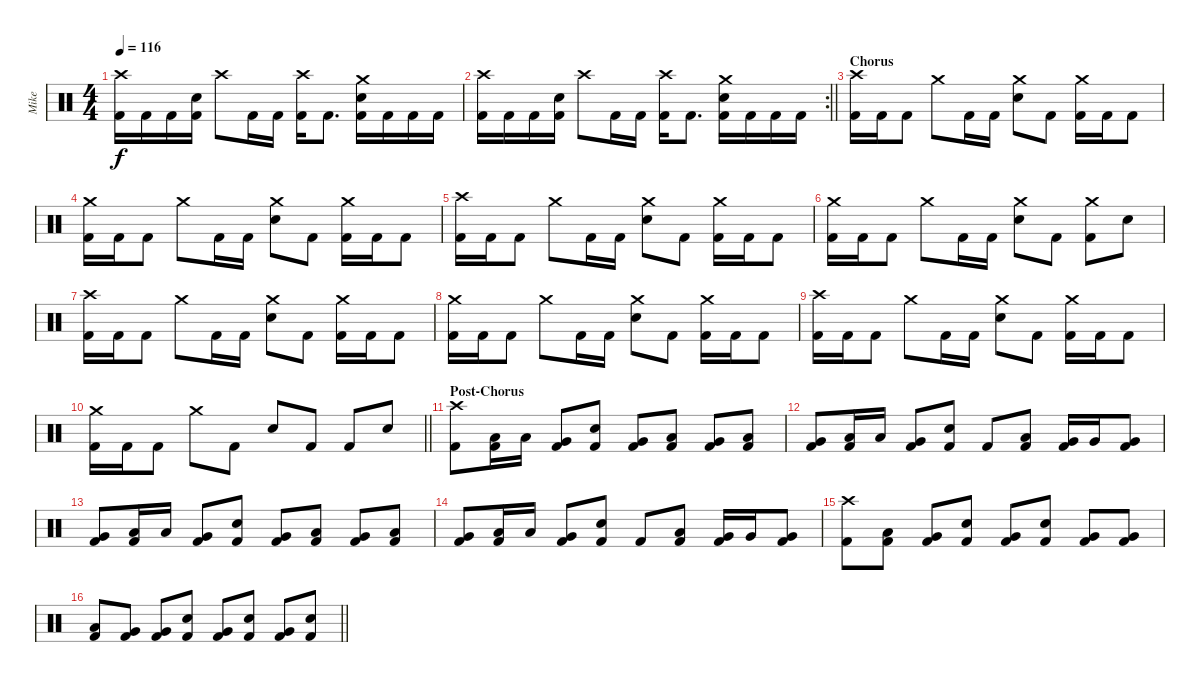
\track ("Mike" "Mike") {instrument percussion}
\staff {score}
\articulation defaults
\ts (4 4)
\tempo 116
\clef neutral
\ks c
("Crash high (hit)" "Kick (hit) 2").16{dy f} "Kick (hit) 2".16 "Kick (hit) 2".16 ("Snare (hit) 2" "Kick (hit) 2").16 "Crash high (hit)".8 "Kick (hit) 2".16 "Kick (hit) 2".16 ("Crash high (hit)" "Kick (hit) 2").16 "Kick (hit) 2".8{d} ("Crash medium (hit)" "Snare (hit) 2" "Kick (hit) 2").16 "Kick (hit) 2".16 "Kick (hit) 2".16 "Kick (hit) 2".16 |
\rc 2
\barLineRight lightlight
("Crash high (hit)" "Kick (hit) 2").16 "Kick (hit) 2".16 "Kick (hit) 2".16 ("Snare (hit) 2" "Kick (hit) 2").16 "Crash high (hit)".8 "Kick (hit) 2".16 "Kick (hit) 2".16 ("Crash high (hit)" "Kick (hit) 2").16 "Kick (hit) 2".8{d} ("Crash medium (hit)" "Snare (hit) 2" "Kick (hit) 2").16 "Kick (hit) 2".16 "Kick (hit) 2".16 "Kick (hit) 2".16 |
\section ("" "Chorus")
("Crash high (hit)" "Kick (hit) 2").16 "Kick (hit) 2".16 "Kick (hit) 2".8 "Crash medium (hit)".8 "Kick (hit) 2".16 "Kick (hit) 2".16 ("Crash medium (hit)" "Snare (hit) 2").8 "Kick (hit) 2".8 ("Crash medium (hit)" "Kick (hit) 2").16 "Kick (hit) 2".16 "Kick (hit) 2".8 |
("Crash medium (hit)" "Kick (hit) 2").16 "Kick (hit) 2".16 "Kick (hit) 2".8 "Crash medium (hit)".8 "Kick (hit) 2".16 "Kick (hit) 2".16 ("Crash medium (hit)" "Snare (hit) 2").8 "Kick (hit) 2".8 ("Crash medium (hit)" "Kick (hit) 2").16 "Kick (hit) 2".16 "Kick (hit) 2".8 |
("Crash high (hit)" "Kick (hit) 2").16 "Kick (hit) 2".16 "Kick (hit) 2".8 "Crash medium (hit)".8 "Kick (hit) 2".16 "Kick (hit) 2".16 ("Crash medium (hit)" "Snare (hit) 2").8 "Kick (hit) 2".8 ("Crash medium (hit)" "Kick (hit) 2").16 "Kick (hit) 2".16 "Kick (hit) 2".8 |
("Crash medium (hit)" "Kick (hit) 2").16 "Kick (hit) 2".16 "Kick (hit) 2".8 "Crash medium (hit)".8 "Kick (hit) 2".16 "Kick (hit) 2".16 ("Crash medium (hit)" "Snare (hit) 2").8 "Kick (hit) 2".8 ("Crash medium (hit)" "Kick (hit) 2").8 "Snare (hit) 2".8 |
("Crash high (hit)" "Kick (hit) 2").16 "Kick (hit) 2".16 "Kick (hit) 2".8 "Crash medium (hit)".8 "Kick (hit) 2".16 "Kick (hit) 2".16 ("Crash medium (hit)" "Snare (hit) 2").8 "Kick (hit) 2".8 ("Crash medium (hit)" "Kick (hit) 2").16 "Kick (hit) 2".16 "Kick (hit) 2".8 |
("Crash medium (hit)" "Kick (hit) 2").16 "Kick (hit) 2".16 "Kick (hit) 2".8 "Crash medium (hit)".8 "Kick (hit) 2".16 "Kick (hit) 2".16 ("Crash medium (hit)" "Snare (hit) 2").8 "Kick (hit) 2".8 ("Crash medium (hit)" "Kick (hit) 2").16 "Kick (hit) 2".16 "Kick (hit) 2".8 |
("Crash high (hit)" "Kick (hit) 2").16 "Kick (hit) 2".16 "Kick (hit) 2".8 "Crash medium (hit)".8 "Kick (hit) 2".16 "Kick (hit) 2".16 ("Crash medium (hit)" "Snare (hit) 2").8 "Kick (hit) 2".8 ("Crash medium (hit)" "Kick (hit) 2").16 "Kick (hit) 2".16 "Kick (hit) 2".8 |
\barLineRight lightlight
("Crash medium (hit)" "Kick (hit) 2").16 "Kick (hit) 2".16 "Kick (hit) 2".8 "Crash medium (hit)".8 "Kick (hit) 2".8 "Snare (hit) 2".8 "Kick (hit) 2".8 "Kick (hit) 2".8 "Snare (hit) 2".8 |
\section ("" "Post-Chorus")
("Crash high (hit)" "Kick (hit) 2").8 ("Low Tom (hit)" "Kick (hit) 2").16 "Low Tom (hit)".16 ("Very Low Tom (hit)" "Kick (hit) 2").8 ("Snare (hit) 2" "Kick (hit) 2").8 ("Very Low Tom (hit)" "Kick (hit) 2").8 ("Low Tom (hit)" "Kick (hit) 2").8 ("Very Low Tom (hit)" "Kick (hit) 2").8 ("Low Tom (hit)" "Kick (hit) 2").8 |
("Very Low Tom (hit)" "Kick (hit) 2").8 ("Low Tom (hit)" "Kick (hit) 2").16 "Low Tom (hit)".16 ("Very Low Tom (hit)" "Kick (hit) 2").8 ("Snare (hit) 2" "Kick (hit) 2").8 "Kick (hit) 2".8 ("Low Tom (hit)" "Kick (hit) 2").8 ("Very Low Tom (hit)" "Kick (hit) 2").16 "Very Low Tom (hit)".16 ("Very Low Tom (hit)" "Kick (hit) 2").8 |
("Very Low Tom (hit)" "Kick (hit) 2").8 ("Low Tom (hit)" "Kick (hit) 2").16 "Low Tom (hit)".16 ("Very Low Tom (hit)" "Kick (hit) 2").8 ("Snare (hit) 2" "Kick (hit) 2").8 ("Very Low Tom (hit)" "Kick (hit) 2").8 ("Low Tom (hit)" "Kick (hit) 2").8 ("Very Low Tom (hit)" "Kick (hit) 2").8 ("Low Tom (hit)" "Kick (hit) 2").8 |
("Very Low Tom (hit)" "Kick (hit) 2").8 ("Low Tom (hit)" "Kick (hit) 2").16 "Low Tom (hit)".16 ("Very Low Tom (hit)" "Kick (hit) 2").8 ("Snare (hit) 2" "Kick (hit) 2").8 "Kick (hit) 2".8 ("Low Tom (hit)" "Kick (hit) 2").8 ("Very Low Tom (hit)" "Kick (hit) 2").16 "Very Low Tom (hit)".16 ("Very Low Tom (hit)" "Kick (hit) 2").8 |
("Crash high (hit)" "Kick (hit) 2").8 ("Low Tom (hit)" "Kick (hit) 2").8 ("Very Low Tom (hit)" "Kick (hit) 2").8 ("Snare (hit) 2" "Kick (hit) 2").8 ("Very Low Tom (hit)" "Kick (hit) 2").8 ("Snare (hit) 2" "Kick (hit) 2").8 ("Very Low Tom (hit)" "Kick (hit) 2").8 ("Very Low Tom (hit)" "Kick (hit) 2").8 |
\barLineRight lightlight
("Low Tom (hit)" "Kick (hit) 2").8 ("Very Low Tom (hit)" "Kick (hit) 2").8 ("Very Low Tom (hit)" "Kick (hit) 2").8 ("Snare (hit) 2" "Kick (hit) 2").8 ("Very Low Tom (hit)" "Kick (hit) 2").8 ("Snare (hit) 2" "Kick (hit) 2").8 ("Very Low Tom (hit)" "Kick (hit) 2").8 ("Snare (hit) 2" "Kick (hit) 2").8
